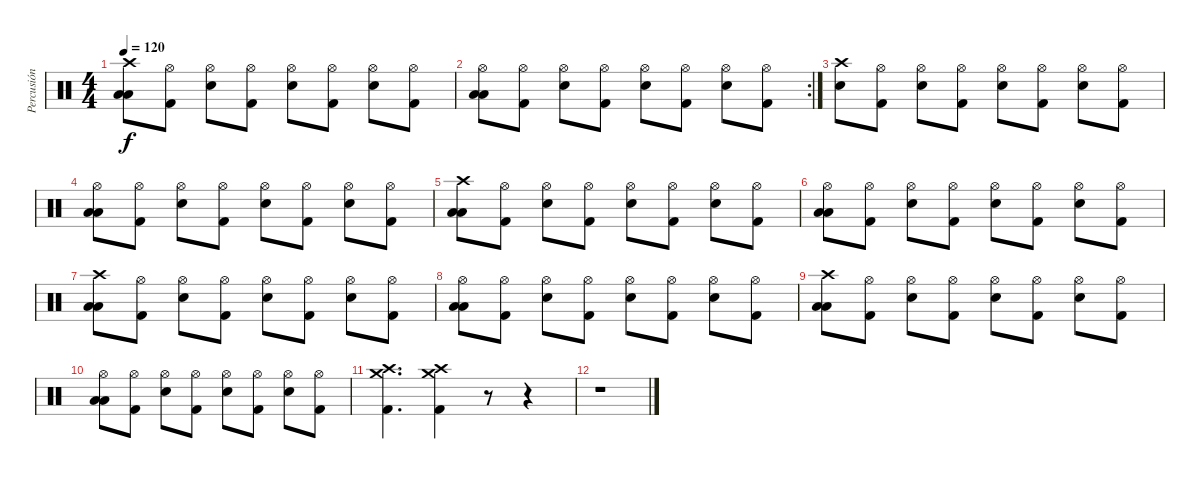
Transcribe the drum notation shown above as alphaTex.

\track ("Percusión" "Percusión") {instrument percussion}
\staff {score}
\articulation defaults
\ts (4 4)
\tempo 120
\clef neutral
\ks c
("Crash high (hit)" "Low Tom (hit)" "Low Floor Tom (hit)").8{dy f} ("Hi-Hat (open)" "Kick (hit) 2").8 ("Hi-Hat (open)" "Electric Snare (hit)").8 ("Hi-Hat (open)" "Kick (hit) 2").8 ("Hi-Hat (open)" "Electric Snare (hit)").8 ("Hi-Hat (open)" "Kick (hit) 2").8 ("Hi-Hat (open)" "Electric Snare (hit)").8 ("Hi-Hat (open)" "Kick (hit) 2").8 |
\rc 2
("Hi-Hat (open)" "Low Tom (hit)" "Low Floor Tom (hit)").8 ("Hi-Hat (open)" "Kick (hit) 2").8 ("Hi-Hat (open)" "Electric Snare (hit)").8 ("Hi-Hat (open)" "Kick (hit) 2").8 ("Hi-Hat (open)" "Electric Snare (hit)").8 ("Hi-Hat (open)" "Kick (hit) 2").8 ("Hi-Hat (open)" "Electric Snare (hit)").8 ("Hi-Hat (open)" "Kick (hit) 2").8 |
("Crash high (hit)" "Electric Snare (hit)").8 ("Hi-Hat (open)" "Kick (hit) 2").8 ("Hi-Hat (open)" "Electric Snare (hit)").8 ("Hi-Hat (open)" "Kick (hit) 2").8 ("Hi-Hat (open)" "Electric Snare (hit)").8 ("Hi-Hat (open)" "Kick (hit) 2").8 ("Hi-Hat (open)" "Electric Snare (hit)").8 ("Hi-Hat (open)" "Kick (hit) 2").8 |
("Hi-Hat (open)" "Low Tom (hit)" "Low Floor Tom (hit)").8 ("Hi-Hat (open)" "Kick (hit) 2").8 ("Hi-Hat (open)" "Electric Snare (hit)").8 ("Hi-Hat (open)" "Kick (hit) 2").8 ("Hi-Hat (open)" "Electric Snare (hit)").8 ("Hi-Hat (open)" "Kick (hit) 2").8 ("Hi-Hat (open)" "Electric Snare (hit)").8 ("Hi-Hat (open)" "Kick (hit) 2").8 |
("Crash high (hit)" "Low Tom (hit)" "Low Floor Tom (hit)").8 ("Hi-Hat (open)" "Kick (hit) 2").8 ("Hi-Hat (open)" "Electric Snare (hit)").8 ("Hi-Hat (open)" "Kick (hit) 2").8 ("Hi-Hat (open)" "Electric Snare (hit)").8 ("Hi-Hat (open)" "Kick (hit) 2").8 ("Hi-Hat (open)" "Electric Snare (hit)").8 ("Hi-Hat (open)" "Kick (hit) 2").8 |
("Hi-Hat (open)" "Low Tom (hit)" "Low Floor Tom (hit)").8 ("Hi-Hat (open)" "Kick (hit) 2").8 ("Hi-Hat (open)" "Electric Snare (hit)").8 ("Hi-Hat (open)" "Kick (hit) 2").8 ("Hi-Hat (open)" "Electric Snare (hit)").8 ("Hi-Hat (open)" "Kick (hit) 2").8 ("Hi-Hat (open)" "Electric Snare (hit)").8 ("Hi-Hat (open)" "Kick (hit) 2").8 |
("Crash high (hit)" "Low Tom (hit)" "Low Floor Tom (hit)").8 ("Hi-Hat (open)" "Kick (hit) 2").8 ("Hi-Hat (open)" "Electric Snare (hit)").8 ("Hi-Hat (open)" "Kick (hit) 2").8 ("Hi-Hat (open)" "Electric Snare (hit)").8 ("Hi-Hat (open)" "Kick (hit) 2").8 ("Hi-Hat (open)" "Electric Snare (hit)").8 ("Hi-Hat (open)" "Kick (hit) 2").8 |
("Hi-Hat (open)" "Low Tom (hit)" "Low Floor Tom (hit)").8 ("Hi-Hat (open)" "Kick (hit) 2").8 ("Hi-Hat (open)" "Electric Snare (hit)").8 ("Hi-Hat (open)" "Kick (hit) 2").8 ("Hi-Hat (open)" "Electric Snare (hit)").8 ("Hi-Hat (open)" "Kick (hit) 2").8 ("Hi-Hat (open)" "Electric Snare (hit)").8 ("Hi-Hat (open)" "Kick (hit) 2").8 |
("Crash high (hit)" "Low Tom (hit)" "Low Floor Tom (hit)").8 ("Hi-Hat (open)" "Kick (hit) 2").8 ("Hi-Hat (open)" "Electric Snare (hit)").8 ("Hi-Hat (open)" "Kick (hit) 2").8 ("Hi-Hat (open)" "Electric Snare (hit)").8 ("Hi-Hat (open)" "Kick (hit) 2").8 ("Hi-Hat (open)" "Electric Snare (hit)").8 ("Hi-Hat (open)" "Kick (hit) 2").8 |
("Hi-Hat (open)" "Low Tom (hit)" "Low Floor Tom (hit)").8 ("Hi-Hat (open)" "Kick (hit) 2").8 ("Hi-Hat (open)" "Electric Snare (hit)").8 ("Hi-Hat (open)" "Kick (hit) 2").8 ("Hi-Hat (open)" "Electric Snare (hit)").8 ("Hi-Hat (open)" "Kick (hit) 2").8 ("Hi-Hat (open)" "Electric Snare (hit)").8 ("Hi-Hat (open)" "Kick (hit) 2").8 |
("Crash high (hit)" "Crash medium (hit)" "Kick (hit) 2").4{d} ("Crash high (hit)" "Crash medium (hit)" "Kick (hit) 2").4 r.8 r.4 |
r.1
